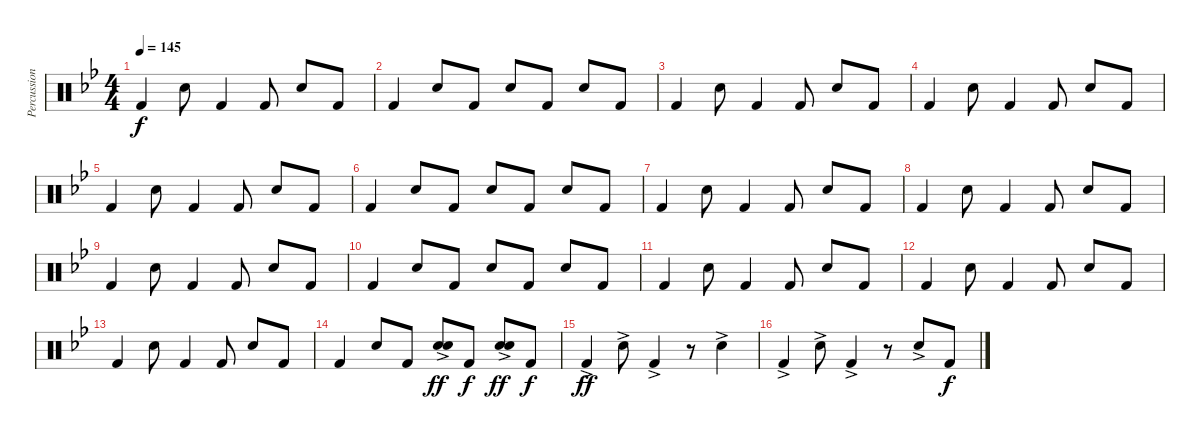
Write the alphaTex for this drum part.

\track ("Percussion" "Percussion") {instrument percussion}
\staff {score}
\articulation defaults
\ts (4 4)
\tempo 145
\clef neutral
\ks gminor "Kick (hit) 2".4{dy f} "Electric Snare (hit)".8 "Kick (hit) 2".4 "Kick (hit) 2".8 "Electric Snare (hit)".8 "Kick (hit) 2".8
|
"Kick (hit) 2".4 "Electric Snare (hit)".8 "Kick (hit) 2".8 "Electric Snare (hit)".8 "Kick (hit) 2".8 "Electric Snare (hit)".8 "Kick (hit) 2".8 |
"Kick (hit) 2".4 "Electric Snare (hit)".8 "Kick (hit) 2".4 "Kick (hit) 2".8 "Electric Snare (hit)".8 "Kick (hit) 2".8 |
"Kick (hit) 2".4 "Electric Snare (hit)".8 "Kick (hit) 2".4 "Kick (hit) 2".8 "Electric Snare (hit)".8 "Kick (hit) 2".8 |
"Kick (hit) 2".4 "Electric Snare (hit)".8 "Kick (hit) 2".4 "Kick (hit) 2".8 "Electric Snare (hit)".8 "Kick (hit) 2".8 |
"Kick (hit) 2".4 "Electric Snare (hit)".8 "Kick (hit) 2".8 "Electric Snare (hit)".8 "Kick (hit) 2".8 "Electric Snare (hit)".8 "Kick (hit) 2".8 |
"Kick (hit) 2".4 "Electric Snare (hit)".8 "Kick (hit) 2".4 "Kick (hit) 2".8 "Electric Snare (hit)".8 "Kick (hit) 2".8 |
"Kick (hit) 2".4 "Electric Snare (hit)".8 "Kick (hit) 2".4 "Kick (hit) 2".8 "Electric Snare (hit)".8 "Kick (hit) 2".8 |
"Kick (hit) 2".4 "Electric Snare (hit)".8 "Kick (hit) 2".4 "Kick (hit) 2".8 "Electric Snare (hit)".8 "Kick (hit) 2".8 |
"Kick (hit) 2".4 "Electric Snare (hit)".8 "Kick (hit) 2".8 "Electric Snare (hit)".8 "Kick (hit) 2".8 "Electric Snare (hit)".8 "Kick (hit) 2".8 |
"Kick (hit) 2".4 "Electric Snare (hit)".8 "Kick (hit) 2".4 "Kick (hit) 2".8 "Electric Snare (hit)".8 "Kick (hit) 2".8 |
"Kick (hit) 2".4 "Electric Snare (hit)".8 "Kick (hit) 2".4 "Kick (hit) 2".8 "Electric Snare (hit)".8 "Kick (hit) 2".8 |
"Kick (hit) 2".4 "Electric Snare (hit)".8 "Kick (hit) 2".4 "Kick (hit) 2".8 "Electric Snare (hit)".8 "Kick (hit) 2".8 |
"Kick (hit) 2".4 "Electric Snare (hit)".8 "Kick (hit) 2".8 ("Hand Clap (hit)"{ac} "Electric Snare (hit)").8{dy ff} "Kick (hit) 2".8{dy f} ("Hand Clap (hit)"{ac} "Electric Snare (hit)").8{dy ff} "Kick (hit) 2".8{dy f} |
"Kick (hit) 2"{ac}.4{dy ff} "Hand Clap (hit)"{ac}.8 "Kick (hit) 2"{ac}.4 r.8 "Hand Clap (hit)"{ac}.4 |
"Kick (hit) 2"{ac}.4 "Hand Clap (hit)"{ac}.8 "Kick (hit) 2"{ac}.4 r.8 "Hand Clap (hit)"{ac}.8 "Kick (hit) 2".8{dy f}
